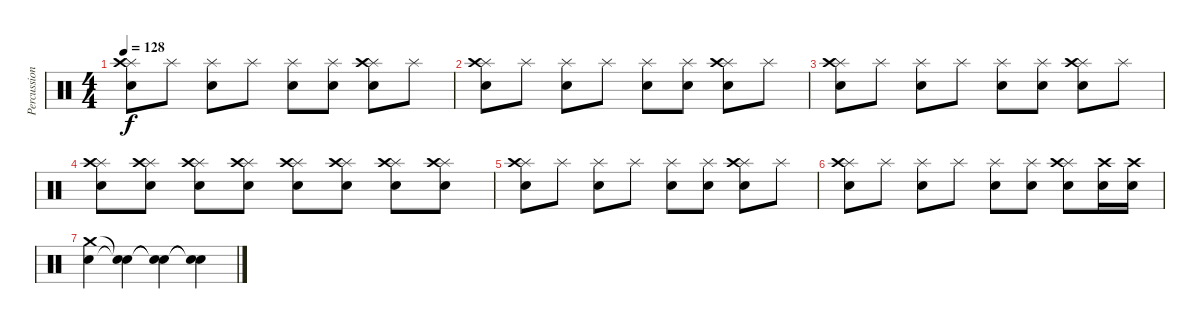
\track ("Percussions" "Percussion") {instrument percussion}
\staff {score}
\articulation defaults
\ts (4 4)
\tempo 128
\clef neutral
\ks c
("Splash (hit)" "Snare (hit) 2" "Crash high (hit)").8{dy f} "Splash (hit)".8 ("Splash (hit)" "Electric Snare (hit)").8 "Splash (hit)".8 ("Splash (hit)" "Snare (hit) 2").8 ("Splash (hit)" "Snare (hit) 2").8 ("Splash (hit)" "Electric Snare (hit)" "Crash high (hit)").8 "Splash (hit)".8 |
("Splash (hit)" "Snare (hit) 2" "Crash high (hit)").8 "Splash (hit)".8 ("Splash (hit)" "Electric Snare (hit)").8 "Splash (hit)".8 ("Splash (hit)" "Snare (hit) 2").8 ("Splash (hit)" "Snare (hit) 2").8 ("Splash (hit)" "Electric Snare (hit)" "Crash high (hit)").8 "Splash (hit)".8 |
("Splash (hit)" "Snare (hit) 2" "Crash high (hit)").8 "Splash (hit)".8 ("Splash (hit)" "Electric Snare (hit)").8 "Splash (hit)".8 ("Splash (hit)" "Snare (hit) 2").8 ("Splash (hit)" "Snare (hit) 2").8 ("Splash (hit)" "Electric Snare (hit)" "Crash high (hit)").8 "Splash (hit)".8 |
("Splash (hit)" "Snare (hit) 2" "Crash high (hit)").8 ("Splash (hit)" "Snare (hit) 2" "Crash high (hit)").8 ("Splash (hit)" "Snare (hit) 2" "Crash high (hit)").8 ("Splash (hit)" "Snare (hit) 2" "Crash high (hit)").8 ("Splash (hit)" "Snare (hit) 2" "Crash high (hit)").8 ("Splash (hit)" "Snare (hit) 2" "Crash high (hit)").8 ("Splash (hit)" "Snare (hit) 2" "Crash high (hit)").8 ("Splash (hit)" "Crash high (hit)" "Electric Snare (hit)").8 |
("Splash (hit)" "Snare (hit) 2" "Crash high (hit)").8 "Splash (hit)".8 ("Splash (hit)" "Electric Snare (hit)").8 "Splash (hit)".8 ("Splash (hit)" "Snare (hit) 2").8 ("Splash (hit)" "Snare (hit) 2").8 ("Splash (hit)" "Electric Snare (hit)" "Crash high (hit)").8 "Splash (hit)".8 |
("Splash (hit)" "Snare (hit) 2" "Crash high (hit)").8 "Splash (hit)".8 ("Splash (hit)" "Electric Snare (hit)").8 "Splash (hit)".8 ("Splash (hit)" "Snare (hit) 2").8 ("Splash (hit)" "Snare (hit) 2").8 ("Splash (hit)" "Electric Snare (hit)" "Crash high (hit)").8 ("Electric Snare (hit)" "Crash high (hit)").16 ("Electric Snare (hit)" "Crash high (hit)").16 |
("Crash medium (hit)" "Electric Snare (hit)").4 ("Snare (hit)"{t} "Snare (hit)"{t}).4 ("Snare (hit)"{t} "Snare (hit)"{t}).4 ("Snare (hit)"{t} "Snare (hit)"{t}).4
